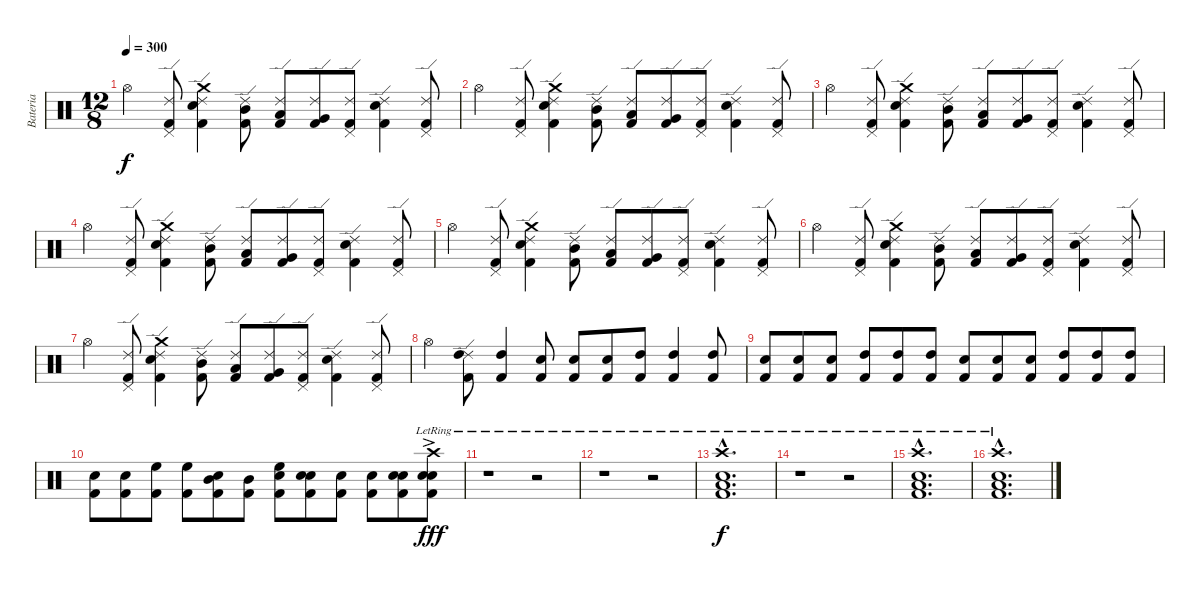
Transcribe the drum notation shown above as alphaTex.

\track ("Bateria" "Bateria") {instrument percussion}
\staff {score}
\articulation defaults
\ts (12 8)
\tempo 300
\clef neutral
\ks c "Hi-Hat (open)".4{dy f}
("Ride (edge) 2" "Pedal Hi-Hat (hit)" "Kick (hit) 2").8 ("Ride (edge) 2" "Crash medium (hit)" "Snare (hit) 2" "Kick (hit) 2").4 ("Ride (edge) 2" "Mid Tom (hit)" "Kick (hit) 2").8 ("Ride (edge) 2" "Low Tom (hit)" "Kick (hit) 2").8 ("Ride (edge) 2" "Very Low Tom (hit)" "Kick (hit) 2").8 ("Ride (edge) 2" "Pedal Hi-Hat (hit)" "Kick (hit) 2").8 ("Ride (edge) 2" "Snare (hit) 2" "Kick (hit) 2").4 ("Ride (edge) 2" "Pedal Hi-Hat (hit)" "Kick (hit) 2").8 |
"Hi-Hat (open)".4 ("Ride (edge) 2" "Pedal Hi-Hat (hit)" "Kick (hit) 2").8 ("Ride (edge) 2" "Crash medium (hit)" "Snare (hit) 2" "Kick (hit) 2").4 ("Ride (edge) 2" "Mid Tom (hit)" "Kick (hit) 2").8 ("Ride (edge) 2" "Low Tom (hit)" "Kick (hit) 2").8 ("Ride (edge) 2" "Very Low Tom (hit)" "Kick (hit) 2").8 ("Ride (edge) 2" "Pedal Hi-Hat (hit)" "Kick (hit) 2").8 ("Ride (edge) 2" "Snare (hit) 2" "Kick (hit) 2").4 ("Ride (edge) 2" "Pedal Hi-Hat (hit)" "Kick (hit) 2").8 |
"Hi-Hat (open)".4 ("Ride (edge) 2" "Pedal Hi-Hat (hit)" "Kick (hit) 2").8 ("Ride (edge) 2" "Crash medium (hit)" "Snare (hit) 2" "Kick (hit) 2").4 ("Ride (edge) 2" "Mid Tom (hit)" "Kick (hit) 2").8 ("Ride (edge) 2" "Low Tom (hit)" "Kick (hit) 2").8 ("Ride (edge) 2" "Very Low Tom (hit)" "Kick (hit) 2").8 ("Ride (edge) 2" "Pedal Hi-Hat (hit)" "Kick (hit) 2").8 ("Ride (edge) 2" "Snare (hit) 2" "Kick (hit) 2").4 ("Ride (edge) 2" "Pedal Hi-Hat (hit)" "Kick (hit) 2").8 |
"Hi-Hat (open)".4 ("Ride (edge) 2" "Pedal Hi-Hat (hit)" "Kick (hit) 2").8 ("Ride (edge) 2" "Crash medium (hit)" "Snare (hit) 2" "Kick (hit) 2").4 ("Ride (edge) 2" "Mid Tom (hit)" "Kick (hit) 2").8 ("Ride (edge) 2" "Low Tom (hit)" "Kick (hit) 2").8 ("Ride (edge) 2" "Very Low Tom (hit)" "Kick (hit) 2").8 ("Ride (edge) 2" "Pedal Hi-Hat (hit)" "Kick (hit) 2").8 ("Ride (edge) 2" "Snare (hit) 2" "Kick (hit) 2").4 ("Ride (edge) 2" "Pedal Hi-Hat (hit)" "Kick (hit) 2").8 |
"Hi-Hat (open)".4 ("Ride (edge) 2" "Pedal Hi-Hat (hit)" "Kick (hit) 2").8 ("Ride (edge) 2" "Crash medium (hit)" "Snare (hit) 2" "Kick (hit) 2").4 ("Ride (edge) 2" "Mid Tom (hit)" "Kick (hit) 2").8 ("Ride (edge) 2" "Low Tom (hit)" "Kick (hit) 2").8 ("Ride (edge) 2" "Very Low Tom (hit)" "Kick (hit) 2").8 ("Ride (edge) 2" "Pedal Hi-Hat (hit)" "Kick (hit) 2").8 ("Ride (edge) 2" "Snare (hit) 2" "Kick (hit) 2").4 ("Ride (edge) 2" "Pedal Hi-Hat (hit)" "Kick (hit) 2").8 |
"Hi-Hat (open)".4 ("Ride (edge) 2" "Pedal Hi-Hat (hit)" "Kick (hit) 2").8 ("Ride (edge) 2" "Crash medium (hit)" "Snare (hit) 2" "Kick (hit) 2").4 ("Ride (edge) 2" "Mid Tom (hit)" "Kick (hit) 2").8 ("Ride (edge) 2" "Low Tom (hit)" "Kick (hit) 2").8 ("Ride (edge) 2" "Very Low Tom (hit)" "Kick (hit) 2").8 ("Ride (edge) 2" "Pedal Hi-Hat (hit)" "Kick (hit) 2").8 ("Ride (edge) 2" "Snare (hit) 2" "Kick (hit) 2").4 ("Ride (edge) 2" "Pedal Hi-Hat (hit)" "Kick (hit) 2").8 |
"Hi-Hat (open)".4 ("Ride (edge) 2" "Pedal Hi-Hat (hit)" "Kick (hit) 2").8 ("Ride (edge) 2" "Crash medium (hit)" "Snare (hit) 2" "Kick (hit) 2").4 ("Ride (edge) 2" "Mid Tom (hit)" "Kick (hit) 2").8 ("Ride (edge) 2" "Low Tom (hit)" "Kick (hit) 2").8 ("Ride (edge) 2" "Very Low Tom (hit)" "Kick (hit) 2").8 ("Ride (edge) 2" "Pedal Hi-Hat (hit)" "Kick (hit) 2").8 ("Ride (edge) 2" "Snare (hit) 2" "Kick (hit) 2").4 ("Ride (edge) 2" "Pedal Hi-Hat (hit)" "Kick (hit) 2").8 |
"Hi-Hat (open)".4 ("Ride (edge) 2" "High Tom (hit)" "Kick (hit) 2").8 ("High Tom (hit)" "Kick (hit) 2").4 ("Snare (hit) 2" "Kick (hit) 2").8 ("Snare (hit) 2" "Kick (hit) 2").8 ("Snare (hit) 2" "Kick (hit) 2").8 ("High Tom (hit)" "Kick (hit) 2").8 ("High Tom (hit)" "Kick (hit) 2").4 ("High Tom (hit)" "Kick (hit) 2").8 |
("Snare (hit) 2" "Kick (hit) 2").8 ("Snare (hit) 2" "Kick (hit) 2").8 ("Snare (hit) 2" "Kick (hit) 2").8 ("High Tom (hit)" "Kick (hit) 2").8 ("High Tom (hit)" "Kick (hit) 2").8 ("High Tom (hit)" "Kick (hit) 2").8 ("Snare (hit) 2" "Kick (hit) 2").8 ("Snare (hit) 2" "Kick (hit) 2").8 ("Snare (hit) 2" "Kick (hit) 2").8 ("High Tom (hit)" "Kick (hit) 2").8 ("High Tom (hit)" "Kick (hit) 2").8 ("High Tom (hit)" "Kick (hit) 2").8 |
("Snare (hit) 2" "Kick (hit) 2").8 ("Snare (hit) 2" "Kick (hit) 2").8 ("High Floor Tom (hit)" "Kick (hit) 2").8 ("High Floor Tom (hit)" "Kick (hit) 2").8 ("Snare (hit) 2" "Mid Tom (hit)" "Kick (hit) 2").8 ("Mid Tom (hit)" "Kick (hit) 2").8 ("Snare (hit) 2" "High Floor Tom (hit)" "Kick (hit) 2").8 ("Snare (hit) 2" "Snare (hit) 2" "Kick (hit) 2").8 ("Snare (hit) 2" "Kick (hit) 2").8 ("Snare (hit) 2" "Kick (hit) 2").8 ("Snare (hit) 2" "Snare (hit) 2" "Kick (hit) 2").8 ("Crash high (hit)"{ac lr} "Snare (hit) 2" "Snare (hit) 2" "Kick (hit) 2").8{dy fff} |
r.1 r.2 |
r.1 r.2 |
("Crash high (hit)"{hac lr} "Snare (hit) 2"{hac} "Low Tom (hit)"{hac} "Kick (hit) 2"{hac}).1{d dy f} |
r.1 r.2 |
("Crash high (hit)"{hac lr} "Snare (hit) 2"{hac} "Low Tom (hit)"{hac} "Kick (hit) 2"{hac}).1{d} |
("Crash high (hit)"{hac lr} "Snare (hit) 2"{hac} "Low Tom (hit)"{hac} "Kick (hit) 2"{hac}).1{d}
